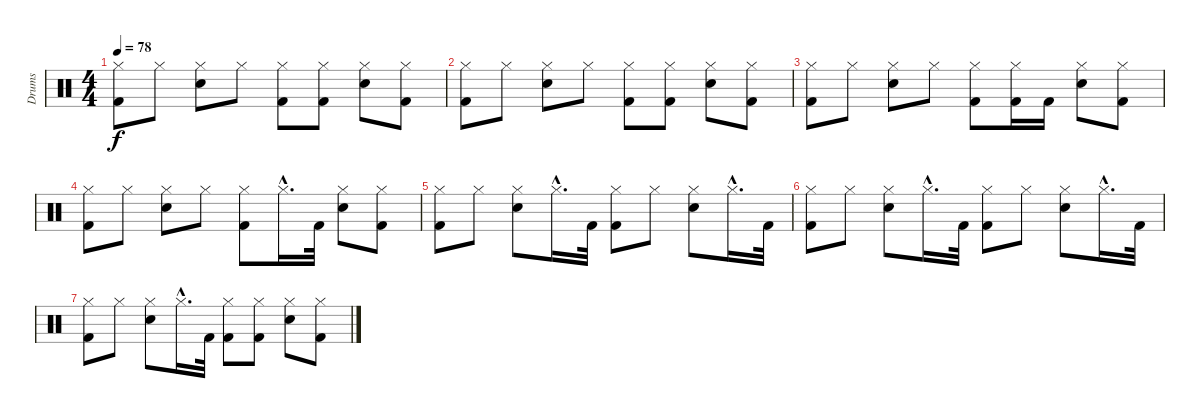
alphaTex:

\track ("Drums" "Drums") {instrument percussion}
\staff {score}
\articulation defaults
\ts (4 4)
\tempo 78
\clef neutral
\ks c
("Hi-Hat (closed)" "Kick (hit) 2").8{dy f} "Hi-Hat (closed)".8 ("Hi-Hat (closed)" "Electric Snare (hit)").8 "Hi-Hat (closed)".8 ("Hi-Hat (closed)" "Kick (hit) 2").8 ("Hi-Hat (closed)" "Kick (hit) 2").8 ("Hi-Hat (closed)" "Electric Snare (hit)").8 ("Hi-Hat (closed)" "Kick (hit) 2").8 |
("Hi-Hat (closed)" "Kick (hit) 2").8{volume 4} "Hi-Hat (closed)".8 ("Hi-Hat (closed)" "Electric Snare (hit)").8 "Hi-Hat (closed)".8 ("Hi-Hat (closed)" "Kick (hit) 2").8 ("Hi-Hat (closed)" "Kick (hit) 2").8 ("Hi-Hat (closed)" "Electric Snare (hit)").8 ("Hi-Hat (closed)" "Kick (hit) 2").8 |
("Hi-Hat (closed)" "Kick (hit) 2").8 "Hi-Hat (closed)".8 ("Hi-Hat (closed)" "Electric Snare (hit)").8 "Hi-Hat (closed)".8 ("Hi-Hat (closed)" "Kick (hit) 2").8 ("Hi-Hat (closed)" "Kick (hit) 2").16 "Kick (hit) 2".16 ("Hi-Hat (closed)" "Electric Snare (hit)").8 ("Hi-Hat (closed)" "Kick (hit) 2").8 |
("Hi-Hat (closed)" "Kick (hit) 2").8{volume 2} "Hi-Hat (closed)".8 ("Hi-Hat (closed)" "Electric Snare (hit)").8 "Hi-Hat (closed)".8 ("Hi-Hat (closed)" "Kick (hit) 2").8 "Hi-Hat (closed)"{hac}.16{d} "Kick (hit) 2".32 ("Hi-Hat (closed)" "Electric Snare (hit)").8 ("Hi-Hat (closed)" "Kick (hit) 2").8 |
("Hi-Hat (closed)" "Kick (hit) 2").8 "Hi-Hat (closed)".8 ("Hi-Hat (closed)" "Electric Snare (hit)").8 "Hi-Hat (closed)"{hac}.16{d} "Kick (hit) 2".32 ("Hi-Hat (closed)" "Kick (hit) 2").8 "Hi-Hat (closed)".8 ("Hi-Hat (closed)" "Electric Snare (hit)").8 "Hi-Hat (closed)"{hac}.16{d} "Kick (hit) 2".32 |
("Hi-Hat (closed)" "Kick (hit) 2").8{volume 0} "Hi-Hat (closed)".8 ("Hi-Hat (closed)" "Electric Snare (hit)").8 "Hi-Hat (closed)"{hac}.16{d} "Kick (hit) 2".32 ("Hi-Hat (closed)" "Kick (hit) 2").8 "Hi-Hat (closed)".8 ("Hi-Hat (closed)" "Electric Snare (hit)").8 "Hi-Hat (closed)"{hac}.16{d} "Kick (hit) 2".32 |
("Hi-Hat (closed)" "Kick (hit) 2").8 "Hi-Hat (closed)".8 ("Hi-Hat (closed)" "Electric Snare (hit)").8 "Hi-Hat (closed)"{hac}.16{d} "Kick (hit) 2".32 ("Hi-Hat (closed)" "Kick (hit) 2").8 ("Hi-Hat (closed)" "Kick (hit) 2").8 ("Hi-Hat (closed)" "Electric Snare (hit)").8 ("Hi-Hat (closed)" "Kick (hit) 2").8
